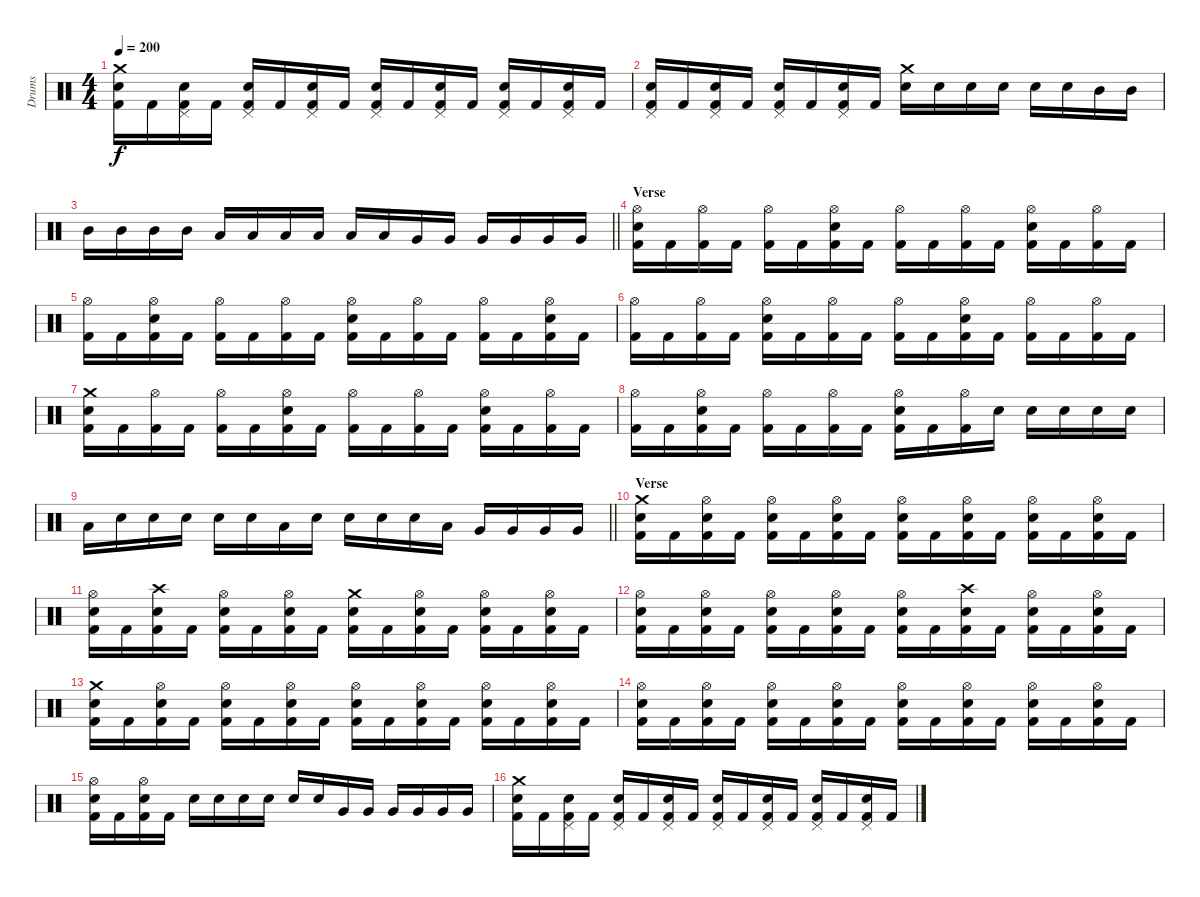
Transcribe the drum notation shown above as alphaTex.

\track ("Drums" "Drums") {instrument percussion}
\staff {score}
\articulation defaults
\ts (4 4)
\tempo 200
\clef neutral
\ks c
("Crash medium (hit)" "Electric Snare (hit)" "Kick (hit) 2").16{dy f} "Kick (hit) 2".16 ("Pedal Hi-Hat (hit)" "Electric Snare (hit)" "Kick (hit) 2").16 "Kick (hit) 2".16 ("Pedal Hi-Hat (hit)" "Electric Snare (hit)" "Kick (hit) 2").16 "Kick (hit) 2".16 ("Pedal Hi-Hat (hit)" "Electric Snare (hit)" "Kick (hit) 2").16 "Kick (hit) 2".16 ("Pedal Hi-Hat (hit)" "Electric Snare (hit)" "Kick (hit) 2").16 "Kick (hit) 2".16 ("Pedal Hi-Hat (hit)" "Electric Snare (hit)" "Kick (hit) 2").16 "Kick (hit) 2".16 ("Pedal Hi-Hat (hit)" "Electric Snare (hit)" "Kick (hit) 2").16 "Kick (hit) 2".16 ("Pedal Hi-Hat (hit)" "Electric Snare (hit)" "Kick (hit) 2").16 "Kick (hit) 2".16 |
("Pedal Hi-Hat (hit)" "Electric Snare (hit)" "Kick (hit) 2").16 "Kick (hit) 2".16 ("Pedal Hi-Hat (hit)" "Electric Snare (hit)" "Kick (hit) 2").16 "Kick (hit) 2".16 ("Pedal Hi-Hat (hit)" "Electric Snare (hit)" "Kick (hit) 2").16 "Kick (hit) 2".16 ("Pedal Hi-Hat (hit)" "Electric Snare (hit)" "Kick (hit) 2").16 "Kick (hit) 2".16 ("Crash medium (hit)" "Electric Snare (hit)").16 "Electric Snare (hit)".16 "Electric Snare (hit)".16 "Electric Snare (hit)".16 "Electric Snare (hit)".16 "Electric Snare (hit)".16 "Mid Tom (hit)".16 "Mid Tom (hit)".16 |
\barLineRight lightlight "Mid Tom (hit)".16 "Mid Tom (hit)".16 "Mid Tom (hit)".16 "Mid Tom (hit)".16 "Low Tom (hit)".16 "Low Tom (hit)".16 "Low Tom (hit)".16 "Low Tom (hit)".16 "Low Tom (hit)".16 "Low Tom (hit)".16 "Very Low Tom (hit)".16 "Very Low Tom (hit)".16 "Very Low Tom (hit)".16 "Very Low Tom (hit)".16 "Very Low Tom (hit)".16 "Very Low Tom (hit)".16
|
\section ("" "Verse")
("Hi-Hat (open)" "Electric Snare (hit)" "Kick (hit) 2").16 "Kick (hit) 2".16 ("Hi-Hat (open)" "Kick (hit) 2").16 "Kick (hit) 2".16 ("Hi-Hat (open)" "Kick (hit) 2").16 "Kick (hit) 2".16 ("Hi-Hat (open)" "Electric Snare (hit)" "Kick (hit) 2").16 "Kick (hit) 2".16 ("Hi-Hat (open)" "Kick (hit) 2").16 "Kick (hit) 2".16 ("Hi-Hat (open)" "Kick (hit) 2").16 "Kick (hit) 2".16 ("Hi-Hat (open)" "Electric Snare (hit)" "Kick (hit) 2").16 "Kick (hit) 2".16 ("Hi-Hat (open)" "Kick (hit) 2").16 "Kick (hit) 2".16 |
("Hi-Hat (open)" "Kick (hit) 2").16 "Kick (hit) 2".16 ("Hi-Hat (open)" "Electric Snare (hit)" "Kick (hit) 2").16 "Kick (hit) 2".16 ("Hi-Hat (open)" "Kick (hit) 2").16 "Kick (hit) 2".16 ("Hi-Hat (open)" "Kick (hit) 2").16 "Kick (hit) 2".16 ("Hi-Hat (open)" "Electric Snare (hit)" "Kick (hit) 2").16 "Kick (hit) 2".16 ("Hi-Hat (open)" "Kick (hit) 2").16 "Kick (hit) 2".16 ("Hi-Hat (open)" "Kick (hit) 2").16 "Kick (hit) 2".16 ("Hi-Hat (open)" "Electric Snare (hit)" "Kick (hit) 2").16 "Kick (hit) 2".16 |
("Hi-Hat (open)" "Kick (hit) 2").16 "Kick (hit) 2".16 ("Hi-Hat (open)" "Kick (hit) 2").16 "Kick (hit) 2".16 ("Hi-Hat (open)" "Electric Snare (hit)" "Kick (hit) 2").16 "Kick (hit) 2".16 ("Hi-Hat (open)" "Kick (hit) 2").16 "Kick (hit) 2".16 ("Hi-Hat (open)" "Kick (hit) 2").16 "Kick (hit) 2".16 ("Hi-Hat (open)" "Electric Snare (hit)" "Kick (hit) 2").16 "Kick (hit) 2".16 ("Hi-Hat (open)" "Kick (hit) 2").16 "Kick (hit) 2".16 ("Hi-Hat (open)" "Kick (hit) 2").16 "Kick (hit) 2".16 |
("Crash medium (hit)" "Electric Snare (hit)" "Kick (hit) 2").16 "Kick (hit) 2".16 ("Hi-Hat (open)" "Kick (hit) 2").16 "Kick (hit) 2".16 ("Hi-Hat (open)" "Kick (hit) 2").16 "Kick (hit) 2".16 ("Hi-Hat (open)" "Electric Snare (hit)" "Kick (hit) 2").16 "Kick (hit) 2".16 ("Hi-Hat (open)" "Kick (hit) 2").16 "Kick (hit) 2".16 ("Hi-Hat (open)" "Kick (hit) 2").16 "Kick (hit) 2".16 ("Hi-Hat (open)" "Electric Snare (hit)" "Kick (hit) 2").16 "Kick (hit) 2".16 ("Hi-Hat (open)" "Kick (hit) 2").16 "Kick (hit) 2".16 |
("Hi-Hat (open)" "Kick (hit) 2").16 "Kick (hit) 2".16 ("Hi-Hat (open)" "Electric Snare (hit)" "Kick (hit) 2").16 "Kick (hit) 2".16 ("Hi-Hat (open)" "Kick (hit) 2").16 "Kick (hit) 2".16 ("Hi-Hat (open)" "Kick (hit) 2").16 "Kick (hit) 2".16 ("Hi-Hat (open)" "Electric Snare (hit)" "Kick (hit) 2").16 "Kick (hit) 2".16 ("Hi-Hat (open)" "Kick (hit) 2").16 "Electric Snare (hit)".16 "Electric Snare (hit)".16 "Electric Snare (hit)".16 "Electric Snare (hit)".16 "Electric Snare (hit)".16 |
\barLineRight lightlight "Low Tom (hit)".16 "Electric Snare (hit)".16 "Electric Snare (hit)".16 "Electric Snare (hit)".16 "Electric Snare (hit)".16 "Electric Snare (hit)".16 "Low Tom (hit)".16 "Electric Snare (hit)".16 "Electric Snare (hit)".16 "Electric Snare (hit)".16 "Electric Snare (hit)".16 "Low Tom (hit)".16 "Very Low Tom (hit)".16 "Very Low Tom (hit)".16 "Very Low Tom (hit)".16 "Very Low Tom (hit)".16
|
\section ("" "Verse")
("Crash medium (hit)" "Electric Snare (hit)" "Kick (hit) 2").16 "Kick (hit) 2".16 ("Hi-Hat (open)" "Electric Snare (hit)" "Kick (hit) 2").16 "Kick (hit) 2".16 ("Hi-Hat (open)" "Electric Snare (hit)" "Kick (hit) 2").16 "Kick (hit) 2".16 ("Hi-Hat (open)" "Electric Snare (hit)" "Kick (hit) 2").16 "Kick (hit) 2".16 ("Hi-Hat (open)" "Electric Snare (hit)" "Kick (hit) 2").16 "Kick (hit) 2".16 ("Hi-Hat (open)" "Electric Snare (hit)" "Kick (hit) 2").16 "Kick (hit) 2".16 ("Hi-Hat (open)" "Electric Snare (hit)" "Kick (hit) 2").16 "Kick (hit) 2".16 ("Hi-Hat (open)" "Electric Snare (hit)" "Kick (hit) 2").16 "Kick (hit) 2".16 |
("Hi-Hat (open)" "Electric Snare (hit)" "Kick (hit) 2").16 "Kick (hit) 2".16 ("Crash high (hit)" "Electric Snare (hit)" "Kick (hit) 2").16 "Kick (hit) 2".16 ("Hi-Hat (open)" "Electric Snare (hit)" "Kick (hit) 2").16 "Kick (hit) 2".16 ("Hi-Hat (open)" "Electric Snare (hit)" "Kick (hit) 2").16 "Kick (hit) 2".16 ("Crash medium (hit)" "Electric Snare (hit)" "Kick (hit) 2").16 "Kick (hit) 2".16 ("Hi-Hat (open)" "Electric Snare (hit)" "Kick (hit) 2").16 "Kick (hit) 2".16 ("Hi-Hat (open)" "Electric Snare (hit)" "Kick (hit) 2").16 "Kick (hit) 2".16 ("Hi-Hat (open)" "Electric Snare (hit)" "Kick (hit) 2").16 "Kick (hit) 2".16 |
("Hi-Hat (open)" "Electric Snare (hit)" "Kick (hit) 2").16 "Kick (hit) 2".16 ("Hi-Hat (open)" "Electric Snare (hit)" "Kick (hit) 2").16 "Kick (hit) 2".16 ("Hi-Hat (open)" "Electric Snare (hit)" "Kick (hit) 2").16 "Kick (hit) 2".16 ("Hi-Hat (open)" "Electric Snare (hit)" "Kick (hit) 2").16 "Kick (hit) 2".16 ("Hi-Hat (open)" "Electric Snare (hit)" "Kick (hit) 2").16 "Kick (hit) 2".16 ("Crash high (hit)" "Electric Snare (hit)" "Kick (hit) 2").16 "Kick (hit) 2".16 ("Hi-Hat (open)" "Electric Snare (hit)" "Kick (hit) 2").16 "Kick (hit) 2".16 ("Hi-Hat (open)" "Electric Snare (hit)" "Kick (hit) 2").16 "Kick (hit) 2".16 |
("Crash medium (hit)" "Electric Snare (hit)" "Kick (hit) 2").16 "Kick (hit) 2".16 ("Hi-Hat (open)" "Electric Snare (hit)" "Kick (hit) 2").16 "Kick (hit) 2".16 ("Hi-Hat (open)" "Electric Snare (hit)" "Kick (hit) 2").16 "Kick (hit) 2".16 ("Hi-Hat (open)" "Electric Snare (hit)" "Kick (hit) 2").16 "Kick (hit) 2".16 ("Hi-Hat (open)" "Electric Snare (hit)" "Kick (hit) 2").16 "Kick (hit) 2".16 ("Hi-Hat (open)" "Electric Snare (hit)" "Kick (hit) 2").16 "Kick (hit) 2".16 ("Hi-Hat (open)" "Electric Snare (hit)" "Kick (hit) 2").16 "Kick (hit) 2".16 ("Hi-Hat (open)" "Electric Snare (hit)" "Kick (hit) 2").16 "Kick (hit) 2".16 |
("Hi-Hat (open)" "Electric Snare (hit)" "Kick (hit) 2").16 "Kick (hit) 2".16 ("Hi-Hat (open)" "Electric Snare (hit)" "Kick (hit) 2").16 "Kick (hit) 2".16 ("Hi-Hat (open)" "Electric Snare (hit)" "Kick (hit) 2").16 "Kick (hit) 2".16 ("Hi-Hat (open)" "Electric Snare (hit)" "Kick (hit) 2").16 "Kick (hit) 2".16 ("Hi-Hat (open)" "Electric Snare (hit)" "Kick (hit) 2").16 "Kick (hit) 2".16 ("Hi-Hat (open)" "Electric Snare (hit)" "Kick (hit) 2").16 "Kick (hit) 2".16 ("Hi-Hat (open)" "Electric Snare (hit)" "Kick (hit) 2").16 "Kick (hit) 2".16 ("Hi-Hat (open)" "Electric Snare (hit)" "Kick (hit) 2").16 "Kick (hit) 2".16 |
("Hi-Hat (open)" "Electric Snare (hit)" "Kick (hit) 2").16 "Kick (hit) 2".16 ("Hi-Hat (open)" "Electric Snare (hit)" "Kick (hit) 2").16 "Kick (hit) 2".16 "Electric Snare (hit)".16 "Electric Snare (hit)".16 "Electric Snare (hit)".16 "Electric Snare (hit)".16 "Electric Snare (hit)".16 "Electric Snare (hit)".16 "Very Low Tom (hit)".16 "Very Low Tom (hit)".16 "Very Low Tom (hit)".16 "Very Low Tom (hit)".16 "Very Low Tom (hit)".16 "Very Low Tom (hit)".16 |
("Crash medium (hit)" "Electric Snare (hit)" "Kick (hit) 2").16 "Kick (hit) 2".16 ("Pedal Hi-Hat (hit)" "Electric Snare (hit)" "Kick (hit) 2").16 "Kick (hit) 2".16 ("Pedal Hi-Hat (hit)" "Electric Snare (hit)" "Kick (hit) 2").16 "Kick (hit) 2".16 ("Pedal Hi-Hat (hit)" "Electric Snare (hit)" "Kick (hit) 2").16 "Kick (hit) 2".16 ("Pedal Hi-Hat (hit)" "Electric Snare (hit)" "Kick (hit) 2").16 "Kick (hit) 2".16 ("Pedal Hi-Hat (hit)" "Electric Snare (hit)" "Kick (hit) 2").16 "Kick (hit) 2".16 ("Pedal Hi-Hat (hit)" "Electric Snare (hit)" "Kick (hit) 2").16 "Kick (hit) 2".16 ("Pedal Hi-Hat (hit)" "Electric Snare (hit)" "Kick (hit) 2").16 "Kick (hit) 2".16
